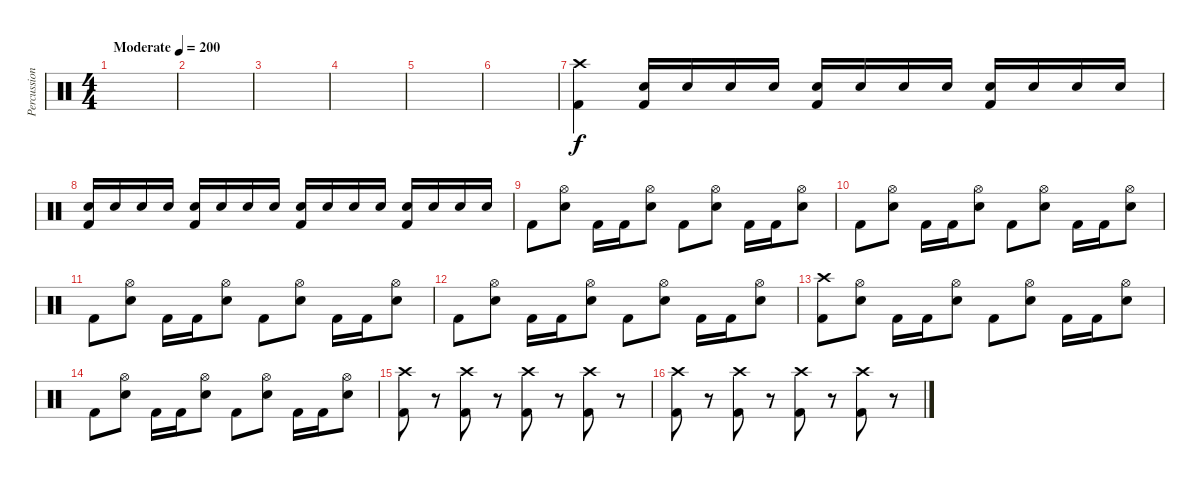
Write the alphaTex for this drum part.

\track ("Percussion" "Percussion") {instrument percussion}
\staff {score}
\articulation defaults
\ts (4 4)
\tempo (200 "Moderate")
\clef neutral
\ks c
|
|
|
|
|
|
("Crash high (hit)" "Kick (hit) 2").4 ("Electric Snare (hit)" "Kick (hit) 2").16 "Electric Snare (hit)".16 "Electric Snare (hit)".16 "Electric Snare (hit)".16 ("Electric Snare (hit)" "Kick (hit) 2").16 "Electric Snare (hit)".16 "Electric Snare (hit)".16 "Electric Snare (hit)".16 ("Electric Snare (hit)" "Kick (hit) 2").16 "Electric Snare (hit)".16 "Electric Snare (hit)".16 "Electric Snare (hit)".16 |
("Electric Snare (hit)" "Kick (hit) 2").16 "Electric Snare (hit)".16 "Electric Snare (hit)".16 "Electric Snare (hit)".16 ("Electric Snare (hit)" "Kick (hit) 2").16 "Electric Snare (hit)".16 "Electric Snare (hit)".16 "Electric Snare (hit)".16 ("Electric Snare (hit)" "Kick (hit) 2").16 "Electric Snare (hit)".16 "Electric Snare (hit)".16 "Electric Snare (hit)".16 ("Electric Snare (hit)" "Kick (hit) 2").16 "Electric Snare (hit)".16 "Electric Snare (hit)".16 "Electric Snare (hit)".16 |
"Kick (hit) 2".8 ("Hi-Hat (open)" "Electric Snare (hit)").8 "Kick (hit) 2".16 "Kick (hit) 2".16 ("Hi-Hat (open)" "Electric Snare (hit)").8 "Kick (hit) 2".8 ("Hi-Hat (open)" "Electric Snare (hit)").8 "Kick (hit) 2".16 "Kick (hit) 2".16 ("Hi-Hat (open)" "Electric Snare (hit)").8 |
"Kick (hit) 2".8 ("Hi-Hat (open)" "Electric Snare (hit)").8 "Kick (hit) 2".16 "Kick (hit) 2".16 ("Hi-Hat (open)" "Electric Snare (hit)").8 "Kick (hit) 2".8 ("Hi-Hat (open)" "Electric Snare (hit)").8 "Kick (hit) 2".16 "Kick (hit) 2".16 ("Hi-Hat (open)" "Electric Snare (hit)").8 |
"Kick (hit) 2".8 ("Hi-Hat (open)" "Electric Snare (hit)").8 "Kick (hit) 2".16 "Kick (hit) 2".16 ("Hi-Hat (open)" "Electric Snare (hit)").8 "Kick (hit) 2".8 ("Hi-Hat (open)" "Electric Snare (hit)").8 "Kick (hit) 2".16 "Kick (hit) 2".16 ("Hi-Hat (open)" "Electric Snare (hit)").8 |
"Kick (hit) 2".8 ("Hi-Hat (open)" "Electric Snare (hit)").8 "Kick (hit) 2".16 "Kick (hit) 2".16 ("Hi-Hat (open)" "Electric Snare (hit)").8 "Kick (hit) 2".8 ("Hi-Hat (open)" "Electric Snare (hit)").8 "Kick (hit) 2".16 "Kick (hit) 2".16 ("Hi-Hat (open)" "Electric Snare (hit)").8 |
("Crash high (hit)" "Kick (hit) 2").8 ("Hi-Hat (open)" "Electric Snare (hit)").8 "Kick (hit) 2".16 "Kick (hit) 2".16 ("Hi-Hat (open)" "Electric Snare (hit)").8 "Kick (hit) 2".8 ("Hi-Hat (open)" "Electric Snare (hit)").8 "Kick (hit) 2".16 "Kick (hit) 2".16 ("Hi-Hat (open)" "Electric Snare (hit)").8 |
"Kick (hit) 2".8 ("Hi-Hat (open)" "Electric Snare (hit)").8 "Kick (hit) 2".16 "Kick (hit) 2".16 ("Hi-Hat (open)" "Electric Snare (hit)").8 "Kick (hit) 2".8 ("Hi-Hat (open)" "Electric Snare (hit)").8 "Kick (hit) 2".16 "Kick (hit) 2".16 ("Hi-Hat (open)" "Electric Snare (hit)").8 |
("Crash high (hit)" "Kick (hit) 2").8 r.8{volume 0} ("Crash high (hit)" "Kick (hit) 2").8{volume 16} r.8{volume 0} ("Crash high (hit)" "Kick (hit) 2").8{volume 16} r.8{volume 0} ("Crash high (hit)" "Kick (hit) 2").8{volume 16} r.8{volume 0} |
("Crash high (hit)" "Kick (hit) 2").8{volume 16} r.8{volume 0} ("Crash high (hit)" "Kick (hit) 2").8{volume 16} r.8{volume 0} ("Crash high (hit)" "Kick (hit) 2").8{volume 16} r.8{volume 0} ("Crash high (hit)" "Kick (hit) 2").8{volume 16} r.8{volume 0}
